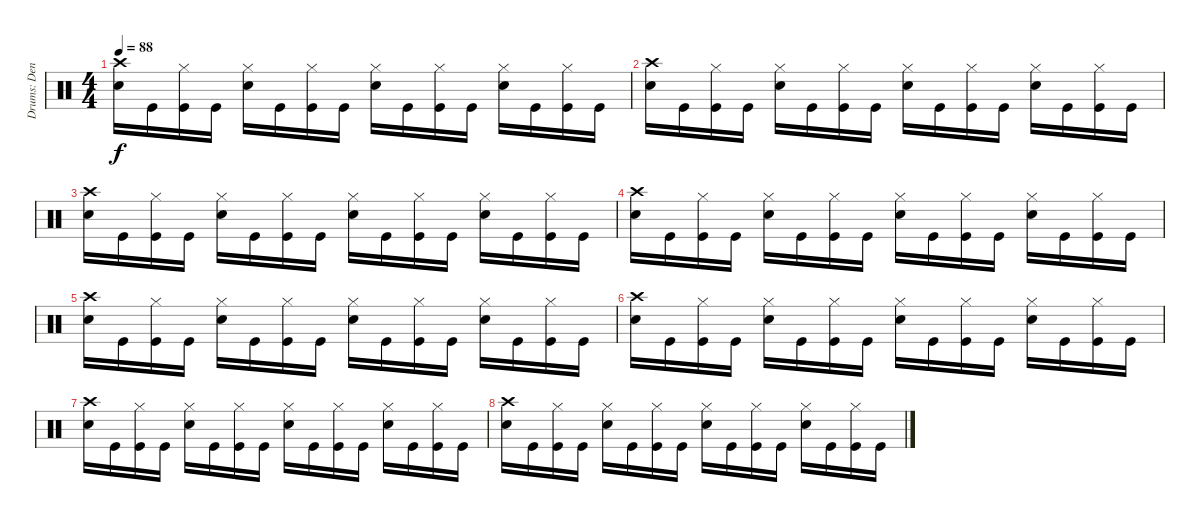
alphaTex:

\track ("Drums: Denny Carmassi" "Drums: Den") {instrument percussion}
\staff {score}
\articulation defaults
\ts (4 4)
\tempo 88
\clef neutral
\ks c
("Crash high (hit)" "Electric Snare (hit)").16{dy f} "Kick (hit)".16 ("Hi-Hat (closed)" "Kick (hit)").16 "Kick (hit)".16 ("Hi-Hat (closed)" "Electric Snare (hit)").16 "Kick (hit)".16 ("Hi-Hat (closed)" "Kick (hit)").16 "Kick (hit)".16 ("Hi-Hat (closed)" "Electric Snare (hit)").16 "Kick (hit)".16 ("Hi-Hat (closed)" "Kick (hit)").16 "Kick (hit)".16 ("Hi-Hat (closed)" "Electric Snare (hit)").16 "Kick (hit)".16 ("Hi-Hat (closed)" "Kick (hit)").16 "Kick (hit)".16 |
("Electric Snare (hit)" "Crash high (hit)").16 "Kick (hit)".16 ("Kick (hit)" "Hi-Hat (closed)").16 "Kick (hit)".16 ("Electric Snare (hit)" "Hi-Hat (closed)").16 "Kick (hit)".16 ("Kick (hit)" "Hi-Hat (closed)").16 "Kick (hit)".16 ("Electric Snare (hit)" "Hi-Hat (closed)").16 "Kick (hit)".16 ("Kick (hit)" "Hi-Hat (closed)").16 "Kick (hit)".16 ("Electric Snare (hit)" "Hi-Hat (closed)").16 "Kick (hit)".16 ("Kick (hit)" "Hi-Hat (closed)").16 "Kick (hit)".16 |
("Electric Snare (hit)" "Crash high (hit)").16 "Kick (hit)".16 ("Kick (hit)" "Hi-Hat (closed)").16 "Kick (hit)".16 ("Electric Snare (hit)" "Hi-Hat (closed)").16 "Kick (hit)".16 ("Kick (hit)" "Hi-Hat (closed)").16 "Kick (hit)".16 ("Electric Snare (hit)" "Hi-Hat (closed)").16 "Kick (hit)".16 ("Kick (hit)" "Hi-Hat (closed)").16 "Kick (hit)".16 ("Electric Snare (hit)" "Hi-Hat (closed)").16 "Kick (hit)".16 ("Kick (hit)" "Hi-Hat (closed)").16 "Kick (hit)".16 |
("Electric Snare (hit)" "Crash high (hit)").16 "Kick (hit)".16 ("Kick (hit)" "Hi-Hat (closed)").16 "Kick (hit)".16 ("Electric Snare (hit)" "Hi-Hat (closed)").16 "Kick (hit)".16 ("Kick (hit)" "Hi-Hat (closed)").16 "Kick (hit)".16 ("Electric Snare (hit)" "Hi-Hat (closed)").16 "Kick (hit)".16 ("Kick (hit)" "Hi-Hat (closed)").16 "Kick (hit)".16 ("Electric Snare (hit)" "Hi-Hat (closed)").16 "Kick (hit)".16 ("Kick (hit)" "Hi-Hat (closed)").16 "Kick (hit)".16 |
("Electric Snare (hit)" "Crash high (hit)").16 "Kick (hit)".16 ("Kick (hit)" "Hi-Hat (closed)").16 "Kick (hit)".16 ("Electric Snare (hit)" "Hi-Hat (closed)").16 "Kick (hit)".16 ("Kick (hit)" "Hi-Hat (closed)").16 "Kick (hit)".16 ("Electric Snare (hit)" "Hi-Hat (closed)").16 "Kick (hit)".16 ("Kick (hit)" "Hi-Hat (closed)").16 "Kick (hit)".16 ("Electric Snare (hit)" "Hi-Hat (closed)").16 "Kick (hit)".16 ("Kick (hit)" "Hi-Hat (closed)").16 "Kick (hit)".16 |
("Crash high (hit)" "Electric Snare (hit)").16 "Kick (hit)".16 ("Hi-Hat (closed)" "Kick (hit)").16 "Kick (hit)".16 ("Hi-Hat (closed)" "Electric Snare (hit)").16 "Kick (hit)".16 ("Hi-Hat (closed)" "Kick (hit)").16 "Kick (hit)".16 ("Hi-Hat (closed)" "Electric Snare (hit)").16 "Kick (hit)".16 ("Hi-Hat (closed)" "Kick (hit)").16 "Kick (hit)".16 ("Hi-Hat (closed)" "Electric Snare (hit)").16 "Kick (hit)".16 ("Hi-Hat (closed)" "Kick (hit)").16 "Kick (hit)".16 |
("Crash high (hit)" "Electric Snare (hit)").16 "Kick (hit)".16 ("Hi-Hat (closed)" "Kick (hit)").16 "Kick (hit)".16 ("Hi-Hat (closed)" "Electric Snare (hit)").16 "Kick (hit)".16 ("Hi-Hat (closed)" "Kick (hit)").16 "Kick (hit)".16 ("Hi-Hat (closed)" "Electric Snare (hit)").16 "Kick (hit)".16 ("Hi-Hat (closed)" "Kick (hit)").16 "Kick (hit)".16 ("Hi-Hat (closed)" "Electric Snare (hit)").16 "Kick (hit)".16 ("Hi-Hat (closed)" "Kick (hit)").16 "Kick (hit)".16 |
("Crash high (hit)" "Electric Snare (hit)").16 "Kick (hit)".16 ("Hi-Hat (closed)" "Kick (hit)").16 "Kick (hit)".16 ("Hi-Hat (closed)" "Electric Snare (hit)").16 "Kick (hit)".16 ("Hi-Hat (closed)" "Kick (hit)").16 "Kick (hit)".16 ("Hi-Hat (closed)" "Electric Snare (hit)").16 "Kick (hit)".16 ("Hi-Hat (closed)" "Kick (hit)").16 "Kick (hit)".16 ("Hi-Hat (closed)" "Electric Snare (hit)").16 "Kick (hit)".16 ("Hi-Hat (closed)" "Kick (hit)").16 "Kick (hit)".16
